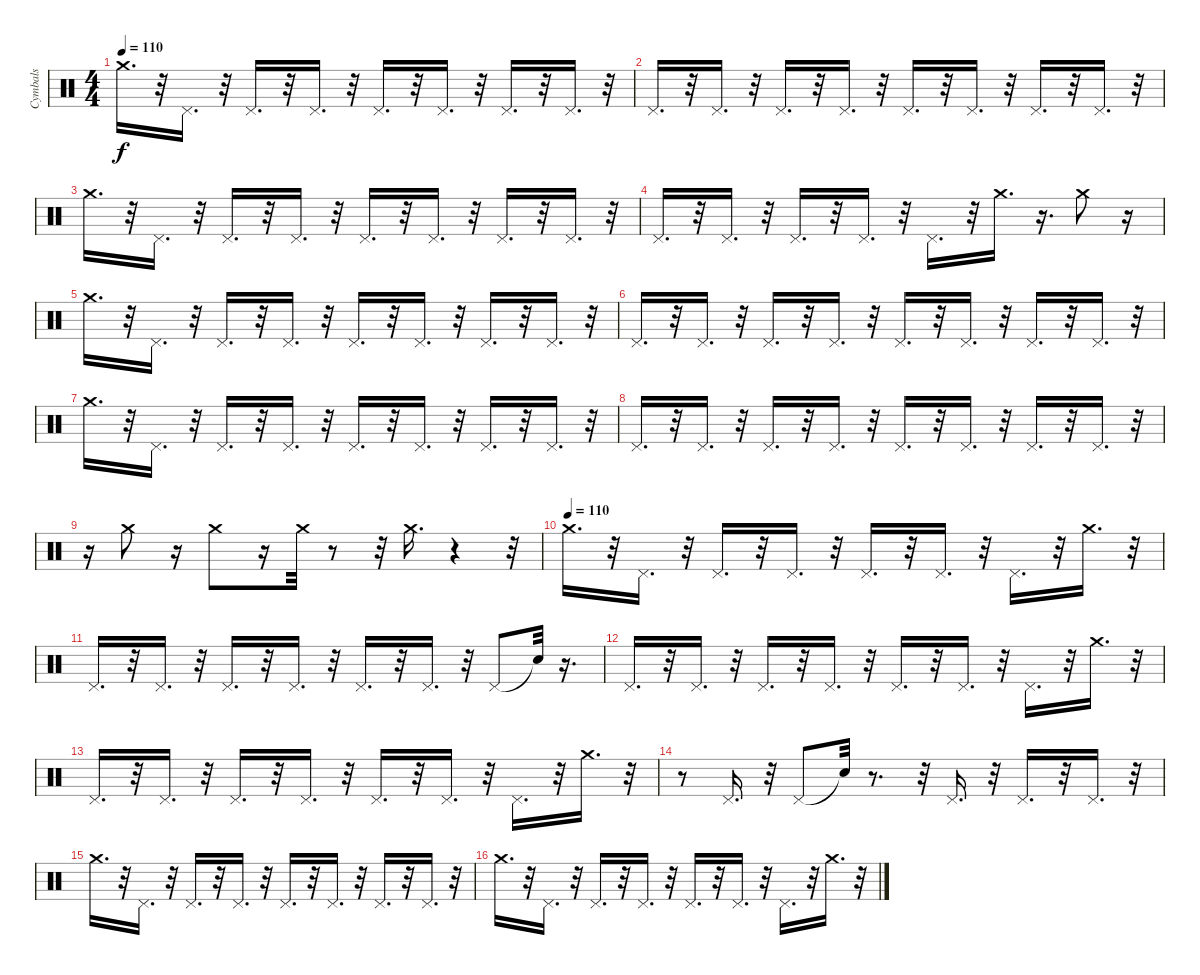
\track ("Cymbals" "Cymbals") {instrument percussion}
\staff {score}
\articulation defaults
\ts (4 4)
\tempo 110
\clef neutral
\ks c "Crash medium (hit)".16{d dy f}
r.32 "Pedal Hi-Hat (hit)".16{d} r.32 "Pedal Hi-Hat (hit)".16{d} r.32 "Pedal Hi-Hat (hit)".16{d} r.32 "Pedal Hi-Hat (hit)".16{d} r.32 "Pedal Hi-Hat (hit)".16{d} r.32 "Pedal Hi-Hat (hit)".16{d} r.32 "Pedal Hi-Hat (hit)".16{d} r.32 |
"Pedal Hi-Hat (hit)".16{d} r.32 "Pedal Hi-Hat (hit)".16{d} r.32 "Pedal Hi-Hat (hit)".16{d} r.32 "Pedal Hi-Hat (hit)".16{d} r.32 "Pedal Hi-Hat (hit)".16{d} r.32 "Pedal Hi-Hat (hit)".16{d} r.32 "Pedal Hi-Hat (hit)".16{d} r.32 "Pedal Hi-Hat (hit)".16{d} r.32 |
"Crash medium (hit)".16{d} r.32 "Pedal Hi-Hat (hit)".16{d} r.32 "Pedal Hi-Hat (hit)".16{d} r.32 "Pedal Hi-Hat (hit)".16{d} r.32 "Pedal Hi-Hat (hit)".16{d} r.32 "Pedal Hi-Hat (hit)".16{d} r.32 "Pedal Hi-Hat (hit)".16{d} r.32 "Pedal Hi-Hat (hit)".16{d} r.32 |
"Pedal Hi-Hat (hit)".16{d} r.32 "Pedal Hi-Hat (hit)".16{d} r.32 "Pedal Hi-Hat (hit)".16{d} r.32 "Pedal Hi-Hat (hit)".16{d} r.32 "Pedal Hi-Hat (hit)".16{d} r.32 "Crash medium (hit)".16{d} r.16{d} "Crash medium (hit)".8 r.16 |
"Crash medium (hit)".16{d} r.32 "Pedal Hi-Hat (hit)".16{d} r.32 "Pedal Hi-Hat (hit)".16{d} r.32 "Pedal Hi-Hat (hit)".16{d} r.32 "Pedal Hi-Hat (hit)".16{d} r.32 "Pedal Hi-Hat (hit)".16{d} r.32 "Pedal Hi-Hat (hit)".16{d} r.32 "Pedal Hi-Hat (hit)".16{d} r.32 |
"Pedal Hi-Hat (hit)".16{d} r.32 "Pedal Hi-Hat (hit)".16{d} r.32 "Pedal Hi-Hat (hit)".16{d} r.32 "Pedal Hi-Hat (hit)".16{d} r.32 "Pedal Hi-Hat (hit)".16{d} r.32 "Pedal Hi-Hat (hit)".16{d} r.32 "Pedal Hi-Hat (hit)".16{d} r.32 "Pedal Hi-Hat (hit)".16{d} r.32 |
"Crash medium (hit)".16{d} r.32 "Pedal Hi-Hat (hit)".16{d} r.32 "Pedal Hi-Hat (hit)".16{d} r.32 "Pedal Hi-Hat (hit)".16{d} r.32 "Pedal Hi-Hat (hit)".16{d} r.32 "Pedal Hi-Hat (hit)".16{d} r.32 "Pedal Hi-Hat (hit)".16{d} r.32 "Pedal Hi-Hat (hit)".16{d} r.32 |
"Pedal Hi-Hat (hit)".16{d} r.32 "Pedal Hi-Hat (hit)".16{d} r.32 "Pedal Hi-Hat (hit)".16{d} r.32 "Pedal Hi-Hat (hit)".16{d} r.32 "Pedal Hi-Hat (hit)".16{d} r.32 "Pedal Hi-Hat (hit)".16{d} r.32 "Pedal Hi-Hat (hit)".16{d} r.32 "Pedal Hi-Hat (hit)".16{d} r.32 |
r.16 "Crash medium (hit)".8 r.16 "Crash medium (hit)".8 r.16 "Crash medium (hit)".32 r.8 r.32 "Crash medium (hit)".16{d} r.4 r.32 |
\tempo (110)
"Crash medium (hit)".16{d} r.32 "Pedal Hi-Hat (hit)".16{d} r.32 "Pedal Hi-Hat (hit)".16{d} r.32 "Pedal Hi-Hat (hit)".16{d} r.32 "Pedal Hi-Hat (hit)".16{d} r.32 "Pedal Hi-Hat (hit)".16{d} r.32 "Pedal Hi-Hat (hit)".16{d} r.32 "Crash medium (hit)".16{d} r.32 |
"Pedal Hi-Hat (hit)".16{d} r.32 "Pedal Hi-Hat (hit)".16{d} r.32 "Pedal Hi-Hat (hit)".16{d} r.32 "Pedal Hi-Hat (hit)".16{d} r.32 "Pedal Hi-Hat (hit)".16{d} r.32 "Pedal Hi-Hat (hit)".16{d} r.32 "Pedal Hi-Hat (hit)".8 "Snare (hit)"{t}.32 r.16{d} |
"Pedal Hi-Hat (hit)".16{d} r.32 "Pedal Hi-Hat (hit)".16{d} r.32 "Pedal Hi-Hat (hit)".16{d} r.32 "Pedal Hi-Hat (hit)".16{d} r.32 "Pedal Hi-Hat (hit)".16{d} r.32 "Pedal Hi-Hat (hit)".16{d} r.32 "Pedal Hi-Hat (hit)".16{d} r.32 "Crash medium (hit)".16{d} r.32 |
"Pedal Hi-Hat (hit)".16{d} r.32 "Pedal Hi-Hat (hit)".16{d} r.32 "Pedal Hi-Hat (hit)".16{d} r.32 "Pedal Hi-Hat (hit)".16{d} r.32 "Pedal Hi-Hat (hit)".16{d} r.32 "Pedal Hi-Hat (hit)".16{d} r.32 "Pedal Hi-Hat (hit)".16{d} r.32 "Crash medium (hit)".16{d} r.32 |
r.8 "Pedal Hi-Hat (hit)".16{d} r.32 "Pedal Hi-Hat (hit)".8 "Snare (hit)"{t}.32 r.8{d} r.32 "Pedal Hi-Hat (hit)".16{d} r.32 "Pedal Hi-Hat (hit)".16{d} r.32 "Pedal Hi-Hat (hit)".16{d} r.32 |
"Crash medium (hit)".16{d} r.32 "Pedal Hi-Hat (hit)".16{d} r.32 "Pedal Hi-Hat (hit)".16{d} r.32 "Pedal Hi-Hat (hit)".16{d} r.32 "Pedal Hi-Hat (hit)".16{d} r.32 "Pedal Hi-Hat (hit)".16{d} r.32 "Pedal Hi-Hat (hit)".16{d} r.32 "Pedal Hi-Hat (hit)".16{d} r.32 |
"Crash medium (hit)".16{d} r.32 "Pedal Hi-Hat (hit)".16{d} r.32 "Pedal Hi-Hat (hit)".16{d} r.32 "Pedal Hi-Hat (hit)".16{d} r.32 "Pedal Hi-Hat (hit)".16{d} r.32 "Pedal Hi-Hat (hit)".16{d} r.32 "Pedal Hi-Hat (hit)".16{d} r.32 "Crash medium (hit)".16{d} r.32
